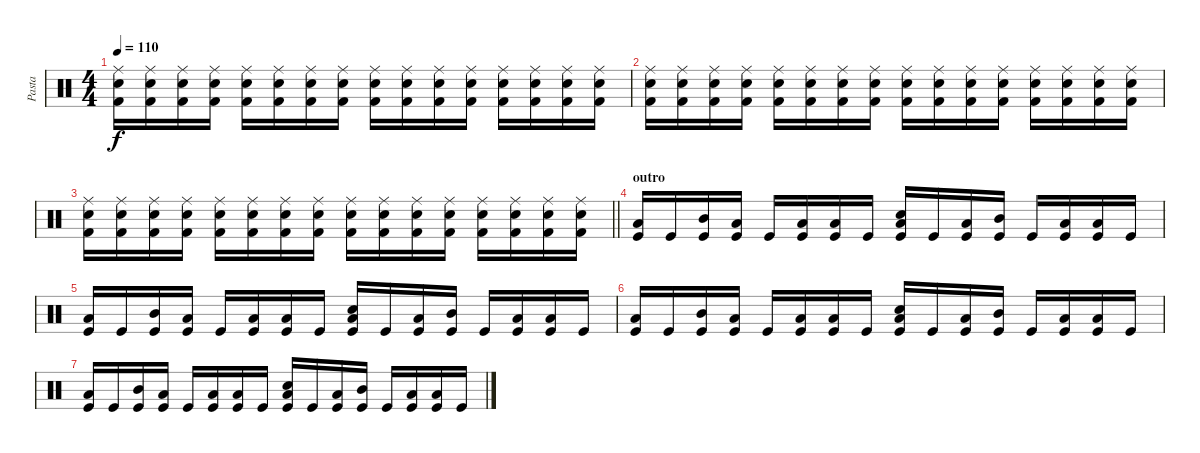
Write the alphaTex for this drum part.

\track ("Pasta" "Pasta") {instrument percussion}
\staff {score}
\articulation defaults
\ts (4 4)
\tempo 110
\clef neutral
\ks c
("Ride (middle)" "Electric Snare (hit)" "Kick (hit) 2").16{dy f} ("Ride (middle)" "Electric Snare (hit)" "Kick (hit) 2").16 ("Ride (middle)" "Electric Snare (hit)" "Kick (hit) 2").16 ("Ride (middle)" "Electric Snare (hit)" "Kick (hit) 2").16 ("Ride (middle)" "Electric Snare (hit)" "Kick (hit) 2").16 ("Ride (middle)" "Electric Snare (hit)" "Kick (hit) 2").16 ("Ride (middle)" "Electric Snare (hit)" "Kick (hit) 2").16 ("Ride (middle)" "Electric Snare (hit)" "Kick (hit) 2").16 ("Ride (middle)" "Electric Snare (hit)" "Kick (hit) 2").16 ("Ride (middle)" "Electric Snare (hit)" "Kick (hit) 2").16 ("Ride (middle)" "Electric Snare (hit)" "Kick (hit) 2").16 ("Ride (middle)" "Electric Snare (hit)" "Kick (hit) 2").16 ("Ride (middle)" "Electric Snare (hit)" "Kick (hit) 2").16 ("Ride (middle)" "Electric Snare (hit)" "Kick (hit) 2").16 ("Ride (middle)" "Electric Snare (hit)" "Kick (hit) 2").16 ("Ride (middle)" "Electric Snare (hit)" "Kick (hit) 2").16 |
("Ride (middle)" "Electric Snare (hit)" "Kick (hit) 2").16 ("Ride (middle)" "Electric Snare (hit)" "Kick (hit) 2").16 ("Ride (middle)" "Electric Snare (hit)" "Kick (hit) 2").16 ("Ride (middle)" "Electric Snare (hit)" "Kick (hit) 2").16 ("Ride (middle)" "Electric Snare (hit)" "Kick (hit) 2").16 ("Ride (middle)" "Electric Snare (hit)" "Kick (hit) 2").16 ("Ride (middle)" "Electric Snare (hit)" "Kick (hit) 2").16 ("Ride (middle)" "Electric Snare (hit)" "Kick (hit) 2").16 ("Ride (middle)" "Electric Snare (hit)" "Kick (hit) 2").16 ("Ride (middle)" "Electric Snare (hit)" "Kick (hit) 2").16 ("Ride (middle)" "Electric Snare (hit)" "Kick (hit) 2").16 ("Ride (middle)" "Electric Snare (hit)" "Kick (hit) 2").16 ("Ride (middle)" "Electric Snare (hit)" "Kick (hit) 2").16 ("Ride (middle)" "Electric Snare (hit)" "Kick (hit) 2").16 ("Ride (middle)" "Electric Snare (hit)" "Kick (hit) 2").16 ("Ride (middle)" "Electric Snare (hit)" "Kick (hit) 2").16 |
\barLineRight lightlight
("Ride (middle)" "Electric Snare (hit)" "Kick (hit) 2").16 ("Ride (middle)" "Electric Snare (hit)" "Kick (hit) 2").16 ("Ride (middle)" "Electric Snare (hit)" "Kick (hit) 2").16 ("Ride (middle)" "Electric Snare (hit)" "Kick (hit) 2").16 ("Ride (middle)" "Electric Snare (hit)" "Kick (hit) 2").16 ("Ride (middle)" "Electric Snare (hit)" "Kick (hit) 2").16 ("Ride (middle)" "Electric Snare (hit)" "Kick (hit) 2").16 ("Ride (middle)" "Electric Snare (hit)" "Kick (hit) 2").16 ("Ride (middle)" "Electric Snare (hit)" "Kick (hit) 2").16 ("Ride (middle)" "Electric Snare (hit)" "Kick (hit) 2").16 ("Ride (middle)" "Electric Snare (hit)" "Kick (hit) 2").16 ("Ride (middle)" "Electric Snare (hit)" "Kick (hit) 2").16 ("Ride (middle)" "Electric Snare (hit)" "Kick (hit) 2").16 ("Ride (middle)" "Electric Snare (hit)" "Kick (hit) 2").16 ("Ride (middle)" "Electric Snare (hit)" "Kick (hit) 2").16 ("Ride (middle)" "Electric Snare (hit)" "Kick (hit) 2").16 |
\section ("" "outro")
("Low Tom (hit)" "Kick (hit)").16 "Kick (hit)".16 ("Mid Tom (hit)" "Kick (hit)").16 ("Low Tom (hit)" "Kick (hit)").16 "Kick (hit)".16 ("Low Tom (hit)" "Kick (hit)").16 ("Low Floor Tom (hit)" "Kick (hit)").16 "Kick (hit)".16 ("Low Tom (hit)" "Electric Snare (hit)" "Kick (hit)").16 "Kick (hit)".16 ("Low Tom (hit)" "Kick (hit)").16 ("Mid Tom (hit)" "Kick (hit)").16 "Kick (hit)".16 ("Low Tom (hit)" "Kick (hit)").16 ("Low Floor Tom (hit)" "Kick (hit)").16 "Kick (hit)".16 |
("Low Tom (hit)" "Kick (hit)").16 "Kick (hit)".16 ("Mid Tom (hit)" "Kick (hit)").16 ("Low Tom (hit)" "Kick (hit)").16 "Kick (hit)".16 ("Low Tom (hit)" "Kick (hit)").16 ("Low Floor Tom (hit)" "Kick (hit)").16 "Kick (hit)".16 ("Low Tom (hit)" "Electric Snare (hit)" "Kick (hit)").16 "Kick (hit)".16 ("Low Tom (hit)" "Kick (hit)").16 ("Mid Tom (hit)" "Kick (hit)").16 "Kick (hit)".16 ("Low Tom (hit)" "Kick (hit)").16 ("Low Floor Tom (hit)" "Kick (hit)").16 "Kick (hit)".16 |
("Low Tom (hit)" "Kick (hit)").16 "Kick (hit)".16 ("Mid Tom (hit)" "Kick (hit)").16 ("Low Tom (hit)" "Kick (hit)").16 "Kick (hit)".16 ("Low Tom (hit)" "Kick (hit)").16 ("Low Floor Tom (hit)" "Kick (hit)").16 "Kick (hit)".16 ("Low Tom (hit)" "Electric Snare (hit)" "Kick (hit)").16 "Kick (hit)".16 ("Low Tom (hit)" "Kick (hit)").16 ("Mid Tom (hit)" "Kick (hit)").16 "Kick (hit)".16 ("Low Tom (hit)" "Kick (hit)").16 ("Low Floor Tom (hit)" "Kick (hit)").16 "Kick (hit)".16 |
("Low Tom (hit)" "Kick (hit)").16 "Kick (hit)".16 ("Mid Tom (hit)" "Kick (hit)").16 ("Low Tom (hit)" "Kick (hit)").16 "Kick (hit)".16 ("Low Tom (hit)" "Kick (hit)").16 ("Low Floor Tom (hit)" "Kick (hit)").16 "Kick (hit)".16 ("Low Tom (hit)" "Electric Snare (hit)" "Kick (hit)").16 "Kick (hit)".16 ("Low Tom (hit)" "Kick (hit)").16 ("Mid Tom (hit)" "Kick (hit)").16 "Kick (hit)".16 ("Low Tom (hit)" "Kick (hit)").16 ("Low Floor Tom (hit)" "Kick (hit)").16 "Kick (hit)".16
